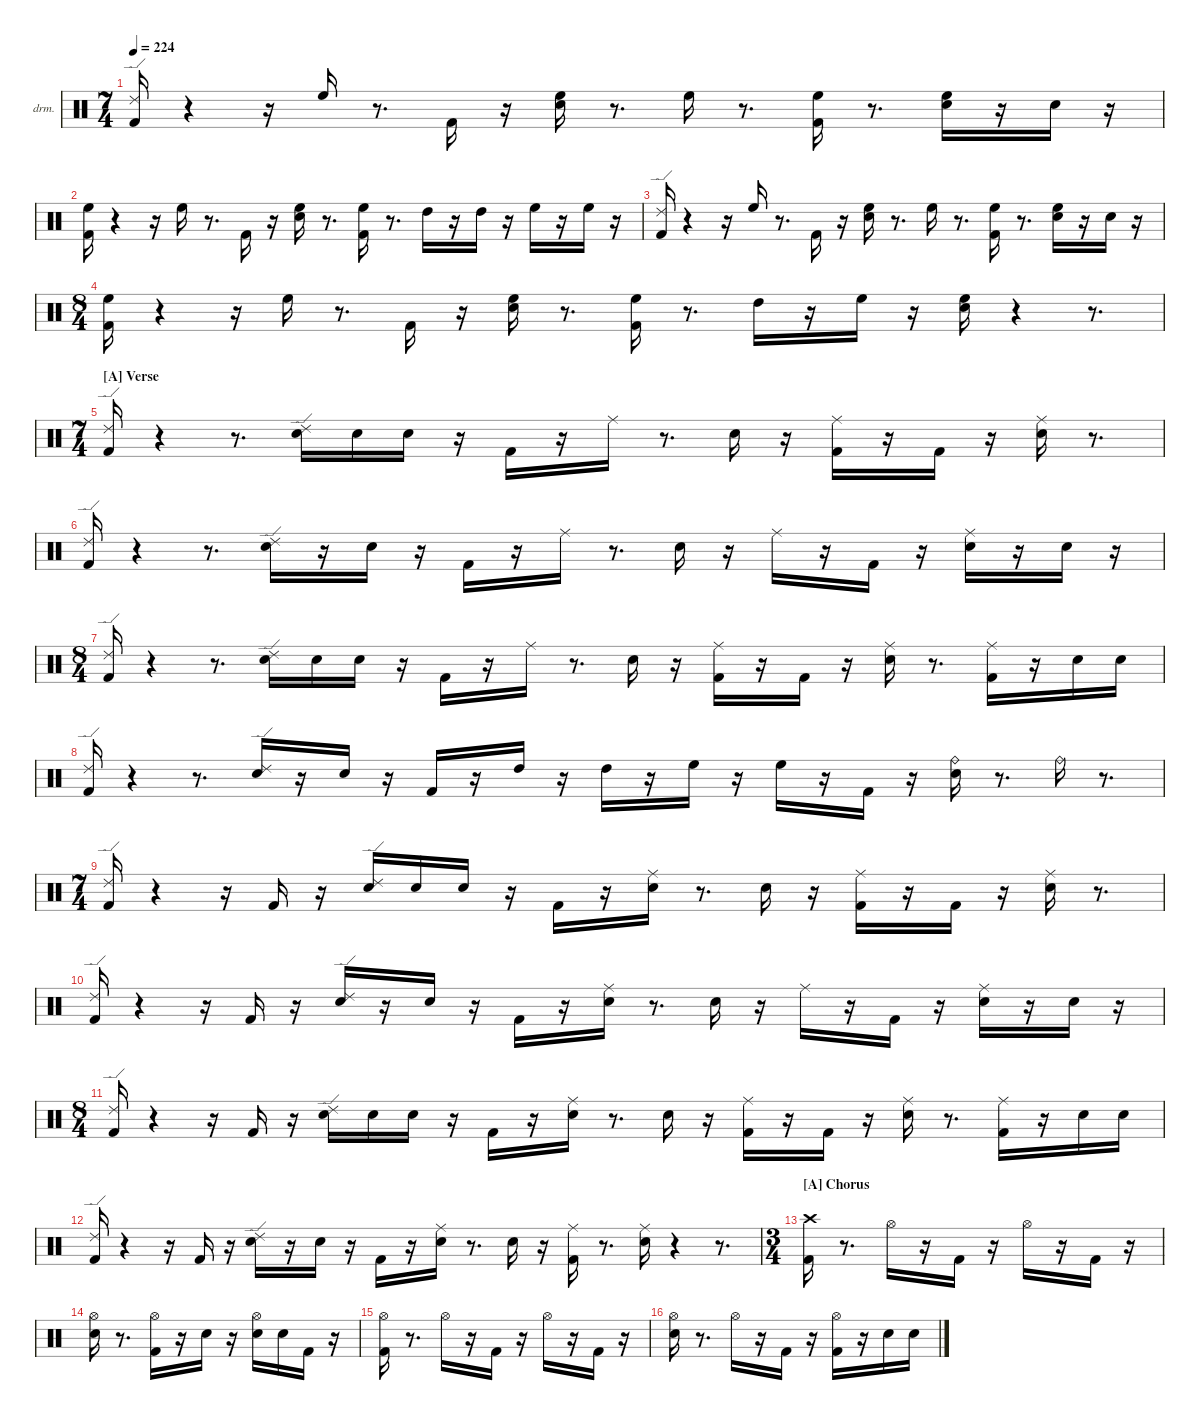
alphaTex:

\hideDynamics
\bracketExtendMode nobrackets
\firstSystemTrackNameOrientation horizontal
\otherSystemsTrackNameOrientation horizontal
\track ("Drums" "drm.") {instrument percussion}
\staff {score}
\articulation defaults
\ts (7 4)
\tempo 224
\clef neutral
\ks aminor
("Kick (hit) 2" "Ride (edge) 2").16{dy fff beam Up} r.4{beam Up} r.16{beam Up} "High Floor Tom (hit)".16{dy mf beam Down} r.8{d beam Down} "Kick (hit) 2".16{dy f beam Down} r.16{beam Down} ("Snare (hit) 2" "High Floor Tom (hit)").16{dy fff beam Down} r.8{d beam Down} "High Floor Tom (hit)".16{beam Down} r.8{d beam Down} ("Kick (hit) 2" "High Floor Tom (hit)").16{dy ff beam Down} r.8{d beam Down} ("Snare (hit) 2" "High Floor Tom (hit)").16{dy f beam Down} r.16{beam Down} "Snare (hit) 2".16{dy mp beam Down} r.16{beam Down} |
("Kick (hit) 2" "High Floor Tom (hit)").16{dy fff beam Down} r.4{beam Down} r.16{beam Down} "High Floor Tom (hit)".16{dy mf beam Down} r.8{d beam Down} "Kick (hit) 2".16{dy f beam Down} r.16{beam Down} ("Snare (hit) 2" "High Floor Tom (hit)").16{dy fff beam Down} r.8{d beam Down} ("Kick (hit) 2" "High Floor Tom (hit)").16{dy ff beam Down} r.8{d beam Down} "High Tom (hit)".16{dy fff beam Down} r.16{beam Down} "High Tom (hit)".16{dy f beam Down} r.16{beam Down} "High Floor Tom (hit)".16{dy ff beam Down} r.16{beam Down} "High Floor Tom (hit)".16{dy f beam Down} r.16{beam Down} |
("Kick (hit) 2" "Ride (edge) 2").16{dy fff beam Up} r.4{beam Up} r.16{beam Up} "High Floor Tom (hit)".16{dy mf beam Down} r.8{d beam Down} "Kick (hit) 2".16{dy f beam Down} r.16{beam Down} ("Snare (hit) 2" "High Floor Tom (hit)").16{dy fff beam Down} r.8{d beam Down} "High Floor Tom (hit)".16{beam Down} r.8{d beam Down} ("Kick (hit) 2" "High Floor Tom (hit)").16{dy ff beam Down} r.8{d beam Down} ("Snare (hit) 2" "High Floor Tom (hit)").16{dy f beam Down} r.16{beam Down} "Snare (hit) 2".16{dy mp beam Down} r.16{beam Down} |
\ts (8 4)
("Kick (hit) 2" "High Floor Tom (hit)").16{dy fff beam Down} r.4{beam Down} r.16{beam Down} "High Floor Tom (hit)".16{dy mf beam Down} r.8{d beam Down} "Kick (hit) 2".16{dy f beam Down} r.16{beam Down} ("Snare (hit) 2" "High Floor Tom (hit)").16{dy fff beam Down} r.8{d beam Down} ("Kick (hit) 2" "High Floor Tom (hit)").16{dy ff beam Down} r.8{d beam Down} "High Tom (hit)".16{dy fff beam Down} r.16{beam Down} "High Floor Tom (hit)".16{dy f beam Down} r.16{beam Down} ("Snare (hit) 2" "High Floor Tom (hit)").16{dy fff beam Down} r.4{beam Down} r.8{d beam Down} |
\ts (7 4)
\section ("A" "Verse")
("Kick (hit) 2" "Ride (edge) 2").16{beam Up} r.4{beam Up} r.8{d beam Up} ("Snare (hit) 2" "Ride (edge) 2").16{dy ff beam Down} "Snare (hit) 2".16{dy p beam Down} "Snare (hit) 2".16{dy ppp beam Down} r.16{beam Down} "Kick (hit) 2".16{dy ff beam Down} r.16{beam Down} "Ride (middle)"{acc #}.16{dy fff beam Down} r.8{d beam Down} "Snare (hit) 2".16{dy ff beam Down} r.16{beam Down} ("Kick (hit) 2" "Ride (middle)"{acc #}).16{dy f beam Down} r.16{beam Down} "Kick (hit) 2".16{dy ff beam Down} r.16{beam Down} ("Snare (hit) 2" "Ride (middle)"{acc #}).16{dy fff beam Down} r.8{d beam Down} |
("Kick (hit) 2" "Ride (edge) 2").16{beam Up} r.4{beam Up} r.8{d beam Up} ("Snare (hit) 2" "Ride (edge) 2").16{beam Down} r.16{beam Down} "Snare (hit) 2".16{dy mp beam Down} r.16{beam Down} "Kick (hit) 2".16{dy ff beam Down} r.16{beam Down} "Ride (middle)"{acc #}.16{dy fff beam Down} r.8{d beam Down} "Snare (hit) 2".16{dy f beam Down} r.16{beam Down} "Ride (middle)"{acc #}.16{beam Down} r.16{beam Down} "Kick (hit) 2".16{beam Down} r.16{beam Down} ("Snare (hit) 2" "Ride (middle)"{acc #}).16{dy mf beam Down} r.16{beam Down} "Snare (hit) 2".16{dy fff beam Down} r.16{beam Down} |
\ts (8 4)
("Kick (hit) 2" "Ride (edge) 2").16{dy ff beam Up} r.4{beam Up} r.8{d beam Up} ("Snare (hit) 2" "Ride (edge) 2").16{beam Down} "Snare (hit) 2".16{dy p beam Down} "Snare (hit) 2".16{dy ppp beam Down} r.16{beam Down} "Kick (hit) 2".16{dy ff beam Down} r.16{beam Down} "Ride (middle)"{acc #}.16{dy fff beam Down} r.8{d beam Down} "Snare (hit) 2".16{dy f beam Down} r.16{beam Down} ("Kick (hit) 2" "Ride (middle)"{acc #}).16{beam Down} r.16{beam Down} "Kick (hit) 2".16{dy ff beam Down} r.16{beam Down} ("Snare (hit) 2" "Ride (middle)"{acc #}).16{dy fff beam Down} r.8{d beam Down} ("Kick (hit) 2" "Ride (middle)"{acc #}).16{dy f beam Down} r.16{beam Down} "Snare (hit) 2".16{beam Down} "Snare (hit) 2".16{dy p beam Down} |
("Kick (hit) 2" "Ride (edge) 2").16{dy fff beam Up} r.4{beam Up} r.8{d beam Up} ("Snare (hit) 2" "Ride (edge) 2").16{beam Up} r.16{beam Up} "Snare (hit) 2".16{dy mp beam Up} r.16{beam Up} "Kick (hit) 2".16{dy ff beam Up} r.16{beam Up} "High Tom (hit)".16{dy fff beam Up} r.16{beam Up} "High Tom (hit)".16{dy f beam Down} r.16{beam Down} "High Floor Tom (hit)".16{dy fff beam Down} r.16{beam Down} "High Floor Tom (hit)".16{dy ff beam Down} r.16{beam Down} "Kick (hit) 2".16{beam Down} r.16{beam Down} ("Snare (hit) 2" "Ride (bell)").16{beam Down} r.8{d beam Down} "Ride (bell)".16{beam Down} r.8{d beam Down} |
\ts (7 4)
("Kick (hit) 2" "Ride (edge) 2").16{beam Up} r.4{beam Up} r.16{beam Up} "Kick (hit) 2".16{dy f beam Up} r.16{beam Up} ("Snare (hit) 2" "Ride (edge) 2").16{dy ff beam Up} "Snare (hit) 2".16{dy p beam Up} "Snare (hit) 2".16{dy ppp beam Up} r.16{beam Up} "Kick (hit) 2".16{dy ff beam Down} r.16{beam Down} ("Snare (hit) 2" "Ride (middle)"{acc #}).16{beam Down} r.8{d beam Down} "Snare (hit) 2".16{dy f beam Down} r.16{beam Down} ("Kick (hit) 2" "Ride (middle)"{acc #}).16{beam Down} r.16{beam Down} "Kick (hit) 2".16{dy ff beam Down} r.16{beam Down} ("Snare (hit) 2" "Ride (middle)"{acc #}).16{dy fff beam Down} r.8{d beam Down} |
("Kick (hit) 2" "Ride (edge) 2").16{beam Up} r.4{beam Up} r.16{beam Up} "Kick (hit) 2".16{dy f beam Up} r.16{beam Up} ("Snare (hit) 2" "Ride (edge) 2").16{dy fff beam Up} r.16{beam Up} "Snare (hit) 2".16{dy mp beam Up} r.16{beam Up} "Kick (hit) 2".16{dy ff beam Down} r.16{beam Down} ("Snare (hit) 2" "Ride (middle)"{acc #}).16{beam Down} r.8{d beam Down} "Snare (hit) 2".16{dy f beam Down} r.16{beam Down} "Ride (middle)"{acc #}.16{beam Down} r.16{beam Down} "Kick (hit) 2".16{beam Down} r.16{beam Down} ("Snare (hit) 2" "Ride (middle)"{acc #}).16{dy mf beam Down} r.16{beam Down} "Snare (hit) 2".16{dy fff beam Down} r.16{beam Down} |
\ts (8 4)
("Kick (hit) 2" "Ride (edge) 2").16{dy ff beam Up} r.4{beam Up} r.16{beam Up} "Kick (hit) 2".16{dy f beam Up} r.16{beam Up} ("Snare (hit) 2" "Ride (edge) 2").16{dy ff beam Down} "Snare (hit) 2".16{dy p beam Down} "Snare (hit) 2".16{dy ppp beam Down} r.16{beam Down} "Kick (hit) 2".16{dy ff beam Down} r.16{beam Down} ("Snare (hit) 2" "Ride (middle)"{acc #}).16{beam Down} r.8{d beam Down} "Snare (hit) 2".16{dy f beam Down} r.16{beam Down} ("Kick (hit) 2" "Ride (middle)"{acc #}).16{beam Down} r.16{beam Down} "Kick (hit) 2".16{dy ff beam Down} r.16{beam Down} ("Snare (hit) 2" "Ride (middle)"{acc #}).16{dy fff beam Down} r.8{d beam Down} ("Kick (hit) 2" "Ride (middle)"{acc #}).16{dy f beam Down} r.16{beam Down} "Snare (hit) 2".16{beam Down} "Snare (hit) 2".16{dy p beam Down} |
("Kick (hit) 2" "Ride (edge) 2").16{dy fff beam Up} r.4{beam Up} r.16{beam Up} "Kick (hit) 2".16{dy f beam Up} r.16{beam Up} ("Snare (hit) 2" "Ride (edge) 2").16{dy fff beam Down} r.16{beam Down} "Snare (hit) 2".16{dy mp beam Down} r.16{beam Down} "Kick (hit) 2".16{dy ff beam Down} r.16{beam Down} ("Snare (hit) 2" "Ride (middle)"{acc #}).16{beam Down} r.8{d beam Down} "Snare (hit) 2".16{dy f beam Down} r.16{beam Down} ("Kick (hit) 2" "Ride (middle)"{acc #}).16{dy ff beam Down} r.8{d beam Down} ("Snare (hit) 2" "Ride (middle)"{acc #}).16{dy fff beam Down} r.4{beam Down} r.8{d beam Down} |
\ts (3 4)
\section ("A" "Chorus")
("Kick (hit) 2" "Crash high (hit)"{acc #}).16{beam Down} r.8{d beam Down} "Hi-Hat (open)"{acc #}.16{dy mp beam Down} r.16{beam Down} "Kick (hit) 2".16{dy f beam Down} r.16{beam Down} "Hi-Hat (open)"{acc #}.16{beam Down} r.16{beam Down} "Kick (hit) 2".16{dy ff beam Down} r.16{beam Down} |
("Snare (hit) 2" "Hi-Hat (open)"{acc #}).16{beam Down} r.8{d beam Down} ("Kick (hit) 2" "Hi-Hat (open)"{acc #}).16{dy mf beam Down} r.16{beam Down} "Snare (hit) 2".16{beam Down} r.16{beam Down} ("Snare (hit) 2" "Hi-Hat (open)"{acc #}).16{dy p beam Down} "Snare (hit) 2".16{dy ppp beam Down} "Kick (hit) 2".16{dy mp beam Down} r.16{beam Down} |
("Kick (hit) 2" "Hi-Hat (open)"{acc #}).16{dy fff beam Down} r.8{d beam Down} "Hi-Hat (open)"{acc #}.16{dy mp beam Down} r.16{beam Down} "Kick (hit) 2".16{dy f beam Down} r.16{beam Down} "Hi-Hat (open)"{acc #}.16{beam Down} r.16{beam Down} "Kick (hit) 2".16{dy ff beam Down} r.16{beam Down} |
("Snare (hit) 2" "Hi-Hat (open)"{acc #}).16{beam Down} r.8{d beam Down} "Hi-Hat (open)"{acc #}.16{dy mf beam Down} r.16{beam Down} "Kick (hit) 2".16{beam Down} r.16{beam Down} ("Kick (hit) 2" "Hi-Hat (open)"{acc #}).16{dy fff beam Down} r.16{beam Down} "Snare (hit) 2".16{dy pp beam Down} "Snare (hit) 2".16{dy ppp beam Down}
